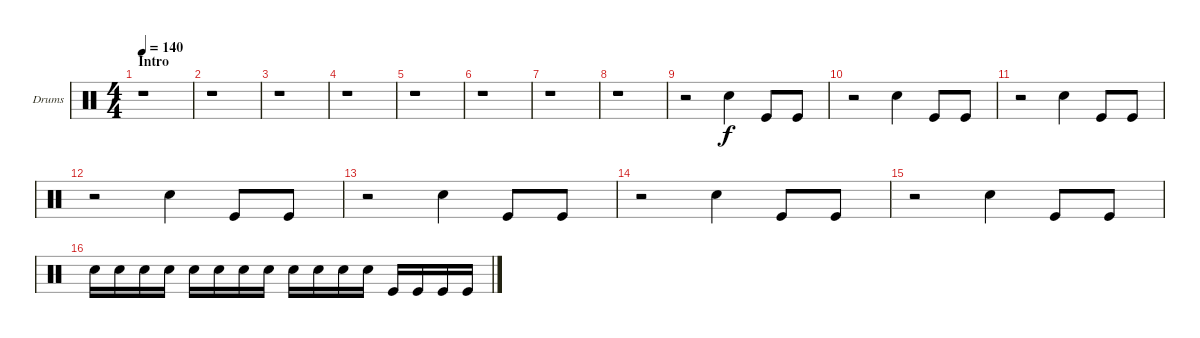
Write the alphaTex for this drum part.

\bracketExtendMode groupsimilarinstruments
\firstSystemTrackNameOrientation horizontal
\otherSystemsTrackNameOrientation horizontal
\track ("Drumkit" "Drums") {instrument percussion}
\staff {score}
\articulation defaults
\ts (4 4)
\section ("" "Intro")
\tempo 140
\clef neutral
\ks c
r.1{dy f} |
r.1 |
r.1 |
r.1 |
r.1 |
r.1 |
r.1 |
r.1 |
r.2 "Snare (hit) 2".4 "Kick (hit)".8 "Kick (hit)".8 |
r.2 "Snare (hit) 2".4 "Kick (hit)".8 "Kick (hit)".8 |
r.2 "Snare (hit) 2".4 "Kick (hit)".8 "Kick (hit)".8 |
r.2 "Snare (hit) 2".4 "Kick (hit)".8 "Kick (hit)".8 |
r.2 "Snare (hit) 2".4 "Kick (hit)".8 "Kick (hit)".8 |
r.2 "Snare (hit) 2".4 "Kick (hit)".8 "Kick (hit)".8 |
r.2 "Snare (hit) 2".4 "Kick (hit)".8 "Kick (hit)".8 |
"Snare (hit) 2".16 "Snare (hit) 2".16 "Snare (hit) 2".16 "Snare (hit) 2".16 "Snare (hit) 2".16 "Snare (hit) 2".16 "Snare (hit) 2".16 "Snare (hit) 2".16 "Snare (hit) 2".16 "Snare (hit) 2".16 "Snare (hit) 2".16 "Snare (hit) 2".16 "Kick (hit)".16 "Kick (hit)".16 "Kick (hit)".16 "Kick (hit)".16
